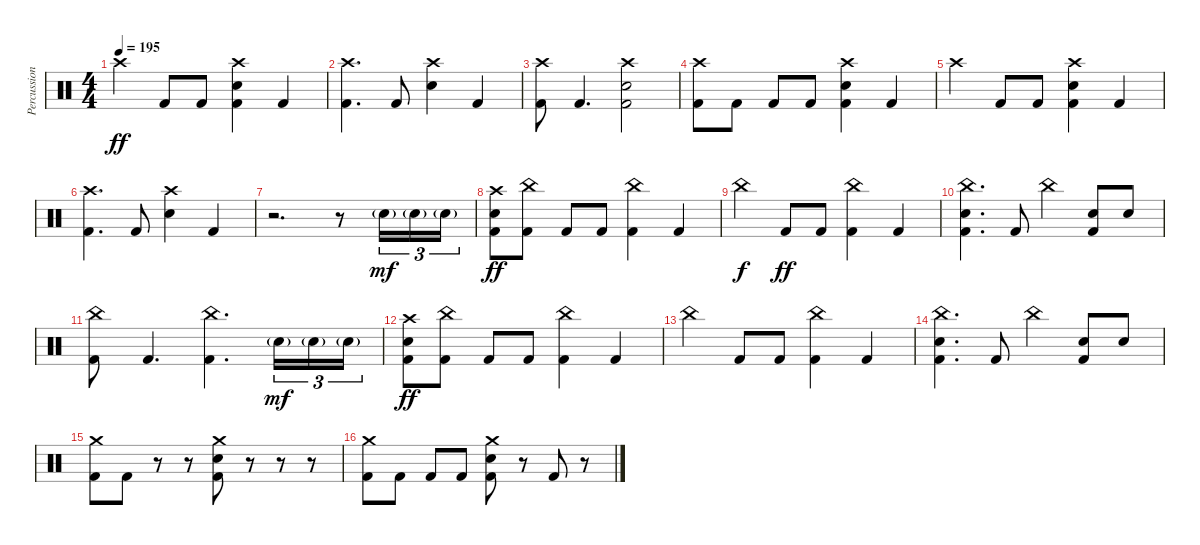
\track ("Percussion" "Percussion") {instrument percussion}
\staff {score}
\articulation defaults
\ts (4 4)
\tempo 195
\clef neutral
\ks c "Crash high (hit)".4{dy ff} "Kick (hit) 2".8 "Kick (hit) 2".8
("Crash high (hit)" "Electric Snare (hit)" "Kick (hit) 2").4 "Kick (hit) 2".4 |
("Crash high (hit)" "Kick (hit) 2").4{d} "Kick (hit) 2".8 ("Crash high (hit)" "Electric Snare (hit)").4 "Kick (hit) 2".4 |
("Crash high (hit)" "Kick (hit) 2").8 "Kick (hit) 2".4{d} ("Crash high (hit)" "Electric Snare (hit)" "Kick (hit) 2").2 |
("Crash high (hit)" "Kick (hit) 2").8 "Kick (hit) 2".8 "Kick (hit) 2".8 "Kick (hit) 2".8 ("Crash high (hit)" "Electric Snare (hit)" "Kick (hit) 2").4 "Kick (hit) 2".4 |
"Crash high (hit)".4 "Kick (hit) 2".8 "Kick (hit) 2".8 ("Crash high (hit)" "Electric Snare (hit)" "Kick (hit) 2").4 "Kick (hit) 2".4 |
("Crash high (hit)" "Kick (hit) 2").4{d} "Kick (hit) 2".8 ("Crash high (hit)" "Electric Snare (hit)").4 "Kick (hit) 2".4 |
r.2{d} r.8 "Snare (hit) 2"{g}.16{tu (3 2) dy mf} "Snare (hit) 2"{g}.16{tu (3 2)} "Snare (hit) 2"{g}.16{tu (3 2)} |
("Crash high (hit)" "Electric Snare (hit)" "Kick (hit) 2").8{dy ff} ("China (hit)" "Kick (hit) 2").8 "Kick (hit) 2".8 "Kick (hit) 2".8 ("China (hit)" "Kick (hit) 2").4 "Kick (hit) 2".4 |
"China (hit)".4{dy f} "Kick (hit) 2".8{dy ff} "Kick (hit) 2".8 ("China (hit)" "Kick (hit) 2").4 "Kick (hit) 2".4 |
("China (hit)" "Electric Snare (hit)" "Kick (hit) 2").4{d} "Kick (hit) 2".8 "China (hit)".4 ("Electric Snare (hit)" "Kick (hit) 2").8 "Electric Snare (hit)".8 |
("China (hit)" "Kick (hit) 2").8 "Kick (hit) 2".4{d} ("China (hit)" "Kick (hit) 2").4{d} "Snare (hit) 2"{g}.16{tu (3 2) dy mf} "Snare (hit) 2"{g}.16{tu (3 2)} "Snare (hit) 2"{g}.16{tu (3 2)} |
("Crash high (hit)" "Electric Snare (hit)" "Kick (hit) 2").8{dy ff} ("China (hit)" "Kick (hit) 2").8 "Kick (hit) 2".8 "Kick (hit) 2".8 ("China (hit)" "Kick (hit) 2").4 "Kick (hit) 2".4 |
"China (hit)".4 "Kick (hit) 2".8 "Kick (hit) 2".8 ("China (hit)" "Kick (hit) 2").4 "Kick (hit) 2".4 |
("China (hit)" "Electric Snare (hit)" "Kick (hit) 2").4{d} "Kick (hit) 2".8 "China (hit)".4 ("Electric Snare (hit)" "Kick (hit) 2").8 "Electric Snare (hit)".8 |
("Crash medium (hit)" "Kick (hit) 2").8 "Kick (hit) 2".8 r.8 r.8 ("Crash medium (hit)" "Electric Snare (hit)" "Kick (hit) 2").8 r.8 r.8 r.8 |
("Crash medium (hit)" "Kick (hit) 2").8 "Kick (hit) 2".8 "Kick (hit) 2".8 "Kick (hit) 2".8 ("Crash medium (hit)" "Electric Snare (hit)" "Kick (hit) 2").8 r.8 "Kick (hit) 2".8 r.8
